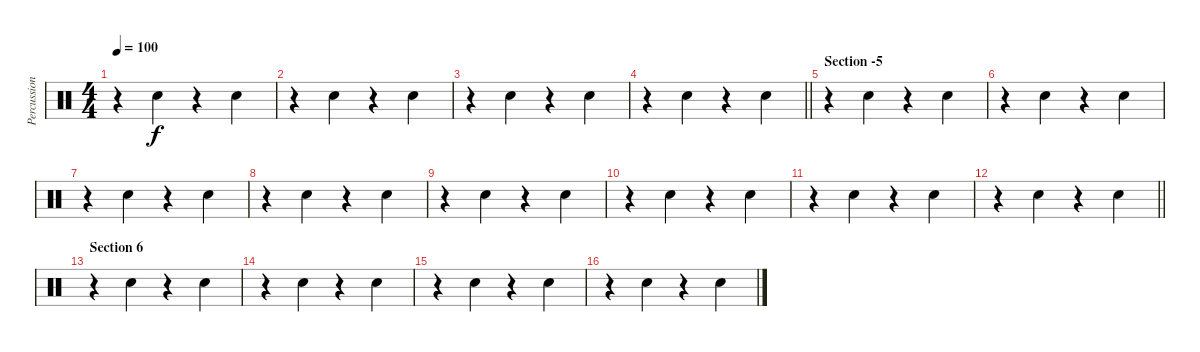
\track ("Percussion" "Percussion") {instrument percussion}
\staff {score}
\articulation defaults
\ts (4 4)
\tempo 100
\clef neutral
\ks c
r.4{dy f} "Hand Clap (hit)".4 r.4 "Hand Clap (hit)".4 |
r.4 "Hand Clap (hit)".4 r.4 "Hand Clap (hit)".4 |
r.4 "Hand Clap (hit)".4 r.4 "Hand Clap (hit)".4 |
\barLineRight lightlight
r.4 "Hand Clap (hit)".4 r.4 "Hand Clap (hit)".4 |
\section ("" "Section -5")
r.4 "Hand Clap (hit)".4 r.4 "Hand Clap (hit)".4 |
r.4 "Hand Clap (hit)".4 r.4 "Hand Clap (hit)".4 |
r.4 "Hand Clap (hit)".4 r.4 "Hand Clap (hit)".4 |
r.4 "Hand Clap (hit)".4 r.4 "Hand Clap (hit)".4 |
r.4 "Hand Clap (hit)".4 r.4 "Hand Clap (hit)".4 |
r.4 "Hand Clap (hit)".4 r.4 "Hand Clap (hit)".4 |
r.4 "Hand Clap (hit)".4 r.4 "Hand Clap (hit)".4 |
\barLineRight lightlight
r.4 "Hand Clap (hit)".4 r.4 "Hand Clap (hit)".4 |
\section ("" "Section 6")
r.4 "Hand Clap (hit)".4 r.4 "Hand Clap (hit)".4 |
r.4 "Hand Clap (hit)".4 r.4 "Hand Clap (hit)".4 |
r.4 "Hand Clap (hit)".4 r.4 "Hand Clap (hit)".4 |
r.4 "Hand Clap (hit)".4 r.4 "Hand Clap (hit)".4
